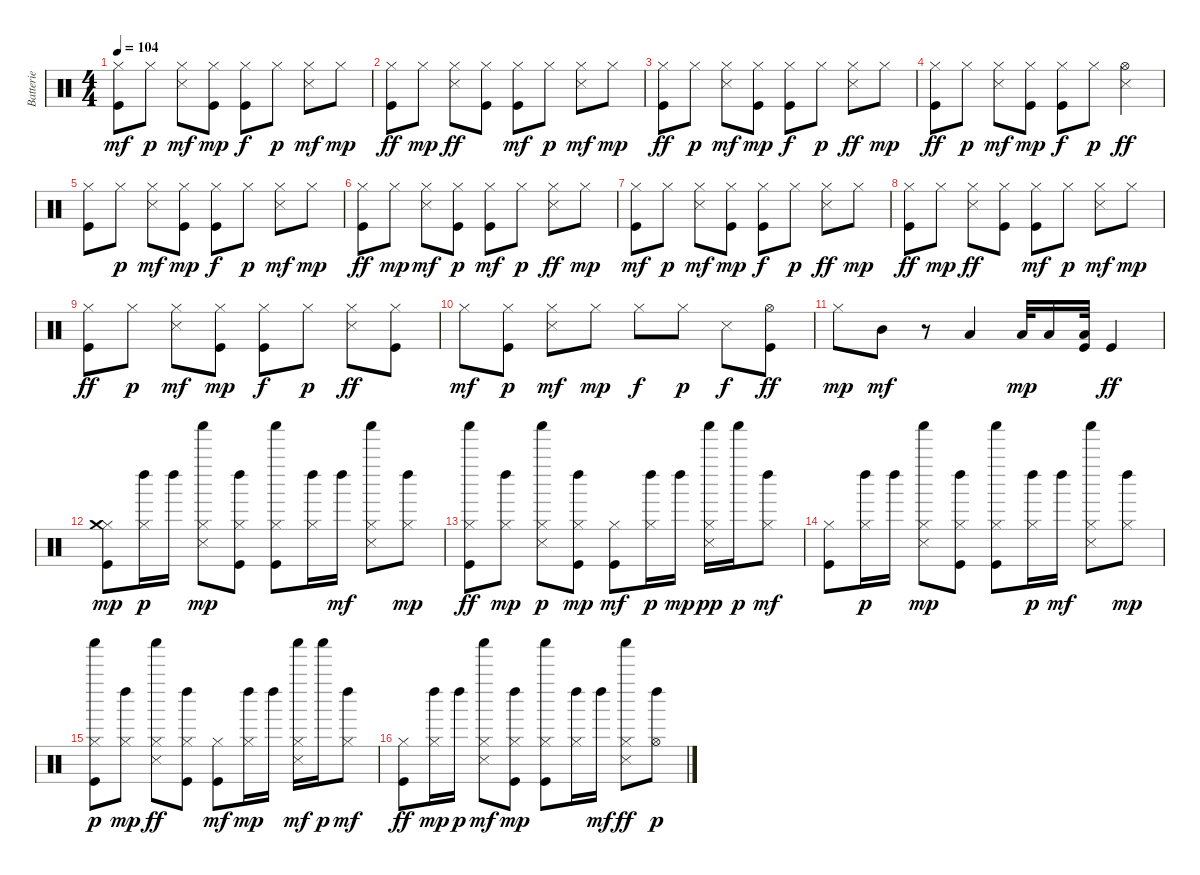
\track ("Batterie" "Batterie") {instrument percussion}
\staff {score}
\articulation defaults
\ts (4 4)
\tempo 104
\clef neutral
\ks c
("Kick (hit)" "Hi-Hat (closed)").8{dy mf} "Hi-Hat (closed)".8{dy p} ("Hi-Hat (closed)" "Snare (side stick) 3").8{dy mf} ("Kick (hit)" "Hi-Hat (closed)").8{dy mp} ("Kick (hit)" "Hi-Hat (closed)").8{dy f} "Hi-Hat (closed)".8{dy p} ("Snare (side stick) 3" "Hi-Hat (closed)").8{dy mf} "Hi-Hat (closed)".8{dy mp} |
("Hi-Hat (closed)" "Kick (hit)").8{dy ff} "Hi-Hat (closed)".8{dy mp} ("Hi-Hat (closed)" "Snare (side stick) 3").8{dy ff} ("Hi-Hat (closed)" "Kick (hit)").8 ("Kick (hit)" "Hi-Hat (closed)").8{dy mf} "Hi-Hat (closed)".8{dy p} ("Snare (side stick) 3" "Hi-Hat (closed)").8{dy mf} "Hi-Hat (closed)".8{dy mp} |
("Hi-Hat (closed)" "Kick (hit)").8{dy ff} "Hi-Hat (closed)".8{dy p} ("Snare (side stick) 3" "Hi-Hat (closed)").8{dy mf} ("Hi-Hat (closed)" "Kick (hit)").8{dy mp} ("Hi-Hat (closed)" "Kick (hit)").8{dy f} "Hi-Hat (closed)".8{dy p} ("Hi-Hat (closed)" "Snare (side stick) 3").8{dy ff} "Hi-Hat (closed)".8{dy mp} |
("Hi-Hat (closed)" "Kick (hit)").8{dy ff} "Hi-Hat (closed)".8{dy p} ("Snare (side stick) 3" "Hi-Hat (closed)").8{dy mf} ("Kick (hit)" "Hi-Hat (closed)").8{dy mp} ("Hi-Hat (closed)" "Kick (hit)").8{dy f} "Hi-Hat (closed)".8{dy p} ("Hi-Hat (open)" "Snare (side stick) 3").4{dy ff} |
("Hi-Hat (closed)" "Kick (hit)").8 "Hi-Hat (closed)".8{dy p} ("Hi-Hat (closed)" "Snare (side stick) 3").8{dy mf} ("Hi-Hat (closed)" "Kick (hit)").8{dy mp} ("Kick (hit)" "Hi-Hat (closed)").8{dy f} "Hi-Hat (closed)".8{dy p} ("Snare (side stick) 3" "Hi-Hat (closed)").8{dy mf} "Hi-Hat (closed)".8{dy mp} |
("Kick (hit)" "Hi-Hat (closed)").8{dy ff} "Hi-Hat (closed)".8{dy mp} ("Snare (side stick) 3" "Hi-Hat (closed)").8{dy mf} ("Kick (hit)" "Hi-Hat (closed)").8{dy p} ("Kick (hit)" "Hi-Hat (closed)").8{dy mf} "Hi-Hat (closed)".8{dy p} ("Hi-Hat (closed)" "Snare (side stick) 3").8{dy ff} "Hi-Hat (closed)".8{dy mp} |
("Kick (hit)" "Hi-Hat (closed)").8{dy mf} "Hi-Hat (closed)".8{dy p} ("Hi-Hat (closed)" "Snare (side stick) 3").8{dy mf} ("Hi-Hat (closed)" "Kick (hit)").8{dy mp} ("Hi-Hat (closed)" "Kick (hit)").8{dy f} "Hi-Hat (closed)".8{dy p} ("Hi-Hat (closed)" "Snare (side stick) 3").8{dy ff} "Hi-Hat (closed)".8{dy mp} |
("Kick (hit)" "Hi-Hat (closed)").8{dy ff} "Hi-Hat (closed)".8{dy mp} ("Hi-Hat (closed)" "Snare (side stick) 3").8{dy ff} ("Hi-Hat (closed)" "Kick (hit)").8 ("Kick (hit)" "Hi-Hat (closed)").8{dy mf} "Hi-Hat (closed)".8{dy p} ("Snare (side stick) 3" "Hi-Hat (closed)").8{dy mf} "Hi-Hat (closed)".8{dy mp} |
("Hi-Hat (closed)" "Kick (hit)").8{dy ff} "Hi-Hat (closed)".8{dy p} ("Hi-Hat (closed)" "Snare (side stick) 3").8{dy mf} ("Kick (hit)" "Hi-Hat (closed)").8{dy mp} ("Kick (hit)" "Hi-Hat (closed)").8{dy f} "Hi-Hat (closed)".8{dy p} ("Hi-Hat (closed)" "Snare (side stick) 3").8{dy ff} ("Hi-Hat (closed)" "Kick (hit)").8 |
"Hi-Hat (closed)".8{dy mf} ("Hi-Hat (closed)" "Kick (hit)").8{dy p} ("Hi-Hat (closed)" "Snare (side stick) 3").8{dy mf} "Hi-Hat (closed)".8{dy mp} "Hi-Hat (closed)".8{dy f} "Hi-Hat (closed)".8{dy p} "Snare (side stick) 3".8{dy f} ("Hi-Hat (open)" "Kick (hit)").8{dy ff} |
"Hi-Hat (closed)".8{dy mp} "Mid Tom (hit)".8{dy mf} r.8 "Low Tom (hit)".4 "Low Tom (hit)".32{dy mp} "Low Tom (hit)".16 ("Kick (hit)" "Low Tom (hit)").32 "Kick (hit)".4{dy ff} |
("Hi-Hat (closed)" "Kick (hit)" "Crash medium (hit)").8{dy mp} ("Left Maraca (hit)" "Hi-Hat (closed)").16{dy p} "Left Maraca (hit)".16 ("Hi-Hat (closed)" "Snare (side stick) 3" "Shaker (hit)").8{dy mp} ("Hi-Hat (closed)" "Left Maraca (hit)" "Kick (hit)").8 ("Hi-Hat (closed)" "Kick (hit)" "Shaker (hit)").8 ("Hi-Hat (closed)" "Left Maraca (hit)").16 "Left Maraca (hit)".16{dy mf} ("Snare (side stick) 3" "Shaker (hit)" "Hi-Hat (closed)").8 ("Left Maraca (hit)" "Hi-Hat (closed)").8{dy mp} |
("Shaker (hit)" "Hi-Hat (closed)" "Kick (hit)").8{dy ff} ("Left Maraca (hit)" "Hi-Hat (closed)").8{dy mp} ("Snare (side stick) 3" "Hi-Hat (closed)" "Shaker (hit)").8{dy p} ("Kick (hit)" "Hi-Hat (closed)" "Left Maraca (hit)").8{dy mp} ("Hi-Hat (closed)" "Kick (hit)").8{dy mf} ("Left Maraca (hit)" "Hi-Hat (closed)").16{dy p} "Left Maraca (hit)".16{dy mp} ("Hi-Hat (closed)" "Snare (side stick) 3" "Shaker (hit)").16{dy pp} "Shaker (hit)".16{dy p} ("Hi-Hat (closed)" "Left Maraca (hit)").8{dy mf} |
("Kick (hit)" "Hi-Hat (closed)").8 ("Left Maraca (hit)" "Hi-Hat (closed)").16{dy p} "Left Maraca (hit)".16 ("Hi-Hat (closed)" "Shaker (hit)" "Snare (side stick) 3").8{dy mp} ("Hi-Hat (closed)" "Left Maraca (hit)" "Kick (hit)").8 ("Kick (hit)" "Hi-Hat (closed)" "Shaker (hit)").8 ("Left Maraca (hit)" "Hi-Hat (closed)").16{dy p} "Left Maraca (hit)".16{dy mf} ("Shaker (hit)" "Snare (side stick) 3" "Hi-Hat (closed)").8 ("Hi-Hat (closed)" "Left Maraca (hit)").8{dy mp} |
("Hi-Hat (closed)" "Kick (hit)" "Shaker (hit)").8{dy p} ("Left Maraca (hit)" "Hi-Hat (closed)").8{dy mp} ("Shaker (hit)" "Hi-Hat (closed)" "Snare (side stick) 3").8{dy ff} ("Hi-Hat (closed)" "Left Maraca (hit)" "Kick (hit)").8 ("Hi-Hat (closed)" "Kick (hit)").8{dy mf} ("Hi-Hat (closed)" "Left Maraca (hit)").16{dy mp} "Left Maraca (hit)".16 ("Snare (side stick) 3" "Shaker (hit)" "Hi-Hat (closed)").16{dy mf} "Shaker (hit)".16{dy p} ("Hi-Hat (closed)" "Left Maraca (hit)").8{dy mf} |
("Hi-Hat (closed)" "Kick (hit)").8{dy ff} ("Hi-Hat (closed)" "Left Maraca (hit)").16{dy mp} "Left Maraca (hit)".16{dy p} ("Shaker (hit)" "Snare (side stick) 3" "Hi-Hat (closed)").8{dy mf} ("Hi-Hat (closed)" "Kick (hit)" "Left Maraca (hit)").8{dy mp} ("Kick (hit)" "Shaker (hit)" "Hi-Hat (closed)").8 ("Hi-Hat (closed)" "Left Maraca (hit)").16 "Left Maraca (hit)".16{dy mf} ("Hi-Hat (closed)" "Shaker (hit)" "Snare (side stick) 3").8{dy ff} ("Left Maraca (hit)" "Hi-Hat (open)").8{dy p}
